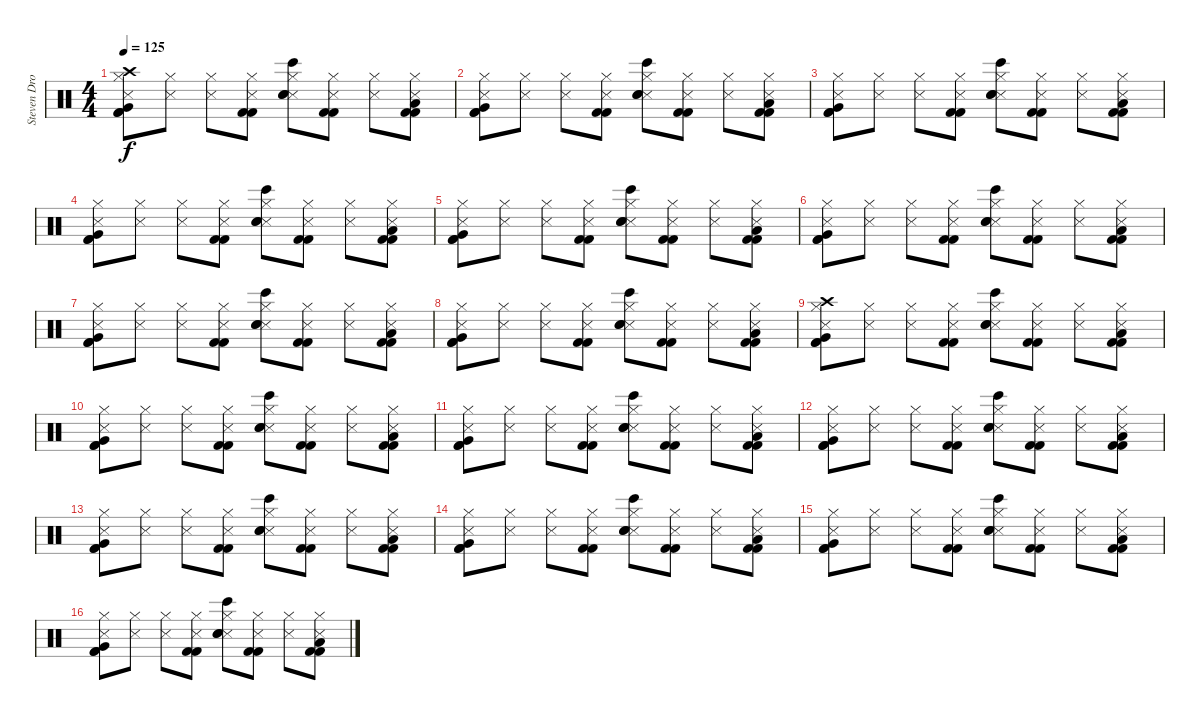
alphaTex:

\track ("Steven Drozd (Drums)" "Steven Dro") {instrument percussion}
\staff {score}
\articulation defaults
\ts (4 4)
\tempo 125
\clef neutral
\ks c
("Hi-Hat (closed)" "Metronome (hit)" "Crash high (hit)" "Kick (hit) 2" "Very Low Tom (hit)" "Kick (hit) 2").8{dy f} ("Hi-Hat (closed)" "Metronome (hit)").8 ("Hi-Hat (closed)" "Metronome (hit)").8 ("Hi-Hat (closed)" "Metronome (hit)" "Kick (hit) 2" "Kick (hit) 2").8 ("Hi-Hat (closed)" "Metronome (hit)" "Bongo High (hit)" "Snare (hit) 2" "Snare (hit) 2").8 ("Hi-Hat (closed)" "Metronome (hit)" "Kick (hit) 2" "Kick (hit) 2").8 ("Hi-Hat (closed)" "Metronome (hit)").8 ("Hi-Hat (closed)" "Metronome (hit)" "Kick (hit) 2" "Low Floor Tom (hit)" "Kick (hit) 2").8 |
("Hi-Hat (closed)" "Metronome (hit)" "Kick (hit) 2" "Very Low Tom (hit)" "Kick (hit) 2").8 ("Hi-Hat (closed)" "Metronome (hit)").8 ("Hi-Hat (closed)" "Metronome (hit)").8 ("Hi-Hat (closed)" "Metronome (hit)" "Kick (hit) 2" "Kick (hit) 2").8 ("Hi-Hat (closed)" "Metronome (hit)" "Bongo High (hit)" "Snare (hit) 2" "Snare (hit) 2").8 ("Hi-Hat (closed)" "Metronome (hit)" "Kick (hit) 2" "Kick (hit) 2").8 ("Hi-Hat (closed)" "Metronome (hit)").8 ("Hi-Hat (closed)" "Metronome (hit)" "Kick (hit) 2" "Low Floor Tom (hit)" "Kick (hit) 2").8 |
("Hi-Hat (closed)" "Metronome (hit)" "Kick (hit) 2" "Very Low Tom (hit)" "Kick (hit) 2").8 ("Hi-Hat (closed)" "Metronome (hit)").8 ("Hi-Hat (closed)" "Metronome (hit)").8 ("Hi-Hat (closed)" "Metronome (hit)" "Kick (hit) 2" "Kick (hit) 2").8 ("Hi-Hat (closed)" "Metronome (hit)" "Bongo High (hit)" "Snare (hit) 2" "Snare (hit) 2").8 ("Hi-Hat (closed)" "Metronome (hit)" "Kick (hit) 2" "Kick (hit) 2").8 ("Hi-Hat (closed)" "Metronome (hit)").8 ("Hi-Hat (closed)" "Metronome (hit)" "Kick (hit) 2" "Low Floor Tom (hit)" "Kick (hit) 2").8 |
("Hi-Hat (closed)" "Metronome (hit)" "Kick (hit) 2" "Very Low Tom (hit)" "Kick (hit) 2").8 ("Hi-Hat (closed)" "Metronome (hit)").8 ("Hi-Hat (closed)" "Metronome (hit)").8 ("Hi-Hat (closed)" "Metronome (hit)" "Kick (hit) 2" "Kick (hit) 2").8 ("Hi-Hat (closed)" "Metronome (hit)" "Bongo High (hit)" "Snare (hit) 2" "Snare (hit) 2").8 ("Hi-Hat (closed)" "Metronome (hit)" "Kick (hit) 2" "Kick (hit) 2").8 ("Hi-Hat (closed)" "Metronome (hit)").8 ("Hi-Hat (closed)" "Metronome (hit)" "Kick (hit) 2" "Low Floor Tom (hit)" "Kick (hit) 2").8 |
("Hi-Hat (closed)" "Metronome (hit)" "Kick (hit) 2" "Very Low Tom (hit)" "Kick (hit) 2").8 ("Hi-Hat (closed)" "Metronome (hit)").8 ("Hi-Hat (closed)" "Metronome (hit)").8 ("Hi-Hat (closed)" "Metronome (hit)" "Kick (hit) 2" "Kick (hit) 2").8 ("Hi-Hat (closed)" "Metronome (hit)" "Bongo High (hit)" "Snare (hit) 2" "Snare (hit) 2").8 ("Hi-Hat (closed)" "Metronome (hit)" "Kick (hit) 2" "Kick (hit) 2").8 ("Hi-Hat (closed)" "Metronome (hit)").8 ("Hi-Hat (closed)" "Metronome (hit)" "Kick (hit) 2" "Low Floor Tom (hit)" "Kick (hit) 2").8 |
("Hi-Hat (closed)" "Metronome (hit)" "Kick (hit) 2" "Very Low Tom (hit)" "Kick (hit) 2").8 ("Hi-Hat (closed)" "Metronome (hit)").8 ("Hi-Hat (closed)" "Metronome (hit)").8 ("Hi-Hat (closed)" "Metronome (hit)" "Kick (hit) 2" "Kick (hit) 2").8 ("Hi-Hat (closed)" "Metronome (hit)" "Bongo High (hit)" "Snare (hit) 2" "Snare (hit) 2").8 ("Hi-Hat (closed)" "Metronome (hit)" "Kick (hit) 2" "Kick (hit) 2").8 ("Hi-Hat (closed)" "Metronome (hit)").8 ("Hi-Hat (closed)" "Metronome (hit)" "Kick (hit) 2" "Low Floor Tom (hit)" "Kick (hit) 2").8 |
("Hi-Hat (closed)" "Metronome (hit)" "Kick (hit) 2" "Very Low Tom (hit)" "Kick (hit) 2").8 ("Hi-Hat (closed)" "Metronome (hit)").8 ("Hi-Hat (closed)" "Metronome (hit)").8 ("Hi-Hat (closed)" "Metronome (hit)" "Kick (hit) 2" "Kick (hit) 2").8 ("Hi-Hat (closed)" "Metronome (hit)" "Bongo High (hit)" "Snare (hit) 2" "Snare (hit) 2").8 ("Hi-Hat (closed)" "Metronome (hit)" "Kick (hit) 2" "Kick (hit) 2").8 ("Hi-Hat (closed)" "Metronome (hit)").8 ("Hi-Hat (closed)" "Metronome (hit)" "Kick (hit) 2" "Low Floor Tom (hit)" "Kick (hit) 2").8 |
("Hi-Hat (closed)" "Metronome (hit)" "Kick (hit) 2" "Very Low Tom (hit)" "Kick (hit) 2").8 ("Hi-Hat (closed)" "Metronome (hit)").8 ("Hi-Hat (closed)" "Metronome (hit)").8 ("Hi-Hat (closed)" "Metronome (hit)" "Kick (hit) 2" "Kick (hit) 2").8 ("Hi-Hat (closed)" "Metronome (hit)" "Bongo High (hit)" "Snare (hit) 2" "Snare (hit) 2").8 ("Hi-Hat (closed)" "Metronome (hit)" "Kick (hit) 2" "Kick (hit) 2").8 ("Hi-Hat (closed)" "Metronome (hit)").8 ("Hi-Hat (closed)" "Metronome (hit)" "Kick (hit) 2" "Low Floor Tom (hit)" "Kick (hit) 2").8 |
("Hi-Hat (closed)" "Metronome (hit)" "Crash high (hit)" "Kick (hit) 2" "Very Low Tom (hit)" "Kick (hit) 2").8 ("Hi-Hat (closed)" "Metronome (hit)").8 ("Hi-Hat (closed)" "Metronome (hit)").8 ("Hi-Hat (closed)" "Metronome (hit)" "Kick (hit) 2" "Kick (hit) 2").8 ("Hi-Hat (closed)" "Metronome (hit)" "Bongo High (hit)" "Snare (hit) 2" "Snare (hit) 2").8 ("Hi-Hat (closed)" "Metronome (hit)" "Kick (hit) 2" "Kick (hit) 2").8 ("Hi-Hat (closed)" "Metronome (hit)").8 ("Hi-Hat (closed)" "Metronome (hit)" "Kick (hit) 2" "Low Floor Tom (hit)" "Kick (hit) 2").8 |
("Hi-Hat (closed)" "Metronome (hit)" "Kick (hit) 2" "Very Low Tom (hit)" "Kick (hit) 2").8 ("Hi-Hat (closed)" "Metronome (hit)").8 ("Hi-Hat (closed)" "Metronome (hit)").8 ("Hi-Hat (closed)" "Metronome (hit)" "Kick (hit) 2" "Kick (hit) 2").8 ("Hi-Hat (closed)" "Metronome (hit)" "Bongo High (hit)" "Snare (hit) 2" "Snare (hit) 2").8 ("Hi-Hat (closed)" "Metronome (hit)" "Kick (hit) 2" "Kick (hit) 2").8 ("Hi-Hat (closed)" "Metronome (hit)").8 ("Hi-Hat (closed)" "Metronome (hit)" "Kick (hit) 2" "Low Floor Tom (hit)" "Kick (hit) 2").8 |
("Hi-Hat (closed)" "Metronome (hit)" "Kick (hit) 2" "Very Low Tom (hit)" "Kick (hit) 2").8 ("Hi-Hat (closed)" "Metronome (hit)").8 ("Hi-Hat (closed)" "Metronome (hit)").8 ("Hi-Hat (closed)" "Metronome (hit)" "Kick (hit) 2" "Kick (hit) 2").8 ("Hi-Hat (closed)" "Metronome (hit)" "Bongo High (hit)" "Snare (hit) 2" "Snare (hit) 2").8 ("Hi-Hat (closed)" "Metronome (hit)" "Kick (hit) 2" "Kick (hit) 2").8 ("Hi-Hat (closed)" "Metronome (hit)").8 ("Hi-Hat (closed)" "Metronome (hit)" "Kick (hit) 2" "Low Floor Tom (hit)" "Kick (hit) 2").8 |
("Hi-Hat (closed)" "Metronome (hit)" "Kick (hit) 2" "Very Low Tom (hit)" "Kick (hit) 2").8 ("Hi-Hat (closed)" "Metronome (hit)").8 ("Hi-Hat (closed)" "Metronome (hit)").8 ("Hi-Hat (closed)" "Metronome (hit)" "Kick (hit) 2" "Kick (hit) 2").8 ("Hi-Hat (closed)" "Metronome (hit)" "Bongo High (hit)" "Snare (hit) 2" "Snare (hit) 2").8 ("Hi-Hat (closed)" "Metronome (hit)" "Kick (hit) 2" "Kick (hit) 2").8 ("Hi-Hat (closed)" "Metronome (hit)").8 ("Hi-Hat (closed)" "Metronome (hit)" "Kick (hit) 2" "Low Floor Tom (hit)" "Kick (hit) 2").8 |
("Hi-Hat (closed)" "Metronome (hit)" "Kick (hit) 2" "Very Low Tom (hit)" "Kick (hit) 2").8 ("Hi-Hat (closed)" "Metronome (hit)").8 ("Hi-Hat (closed)" "Metronome (hit)").8 ("Hi-Hat (closed)" "Metronome (hit)" "Kick (hit) 2" "Kick (hit) 2").8 ("Hi-Hat (closed)" "Metronome (hit)" "Bongo High (hit)" "Snare (hit) 2" "Snare (hit) 2").8 ("Hi-Hat (closed)" "Metronome (hit)" "Kick (hit) 2" "Kick (hit) 2").8 ("Hi-Hat (closed)" "Metronome (hit)").8 ("Hi-Hat (closed)" "Metronome (hit)" "Kick (hit) 2" "Low Floor Tom (hit)" "Kick (hit) 2").8 |
("Hi-Hat (closed)" "Metronome (hit)" "Kick (hit) 2" "Very Low Tom (hit)" "Kick (hit) 2").8 ("Hi-Hat (closed)" "Metronome (hit)").8 ("Hi-Hat (closed)" "Metronome (hit)").8 ("Hi-Hat (closed)" "Metronome (hit)" "Kick (hit) 2" "Kick (hit) 2").8 ("Hi-Hat (closed)" "Metronome (hit)" "Bongo High (hit)" "Snare (hit) 2" "Snare (hit) 2").8 ("Hi-Hat (closed)" "Metronome (hit)" "Kick (hit) 2" "Kick (hit) 2").8 ("Hi-Hat (closed)" "Metronome (hit)").8 ("Hi-Hat (closed)" "Metronome (hit)" "Kick (hit) 2" "Low Floor Tom (hit)" "Kick (hit) 2").8 |
("Hi-Hat (closed)" "Metronome (hit)" "Kick (hit) 2" "Very Low Tom (hit)" "Kick (hit) 2").8 ("Hi-Hat (closed)" "Metronome (hit)").8 ("Hi-Hat (closed)" "Metronome (hit)").8 ("Hi-Hat (closed)" "Metronome (hit)" "Kick (hit) 2" "Kick (hit) 2").8 ("Hi-Hat (closed)" "Metronome (hit)" "Bongo High (hit)" "Snare (hit) 2" "Snare (hit) 2").8 ("Hi-Hat (closed)" "Metronome (hit)" "Kick (hit) 2" "Kick (hit) 2").8 ("Hi-Hat (closed)" "Metronome (hit)").8 ("Hi-Hat (closed)" "Metronome (hit)" "Kick (hit) 2" "Low Floor Tom (hit)" "Kick (hit) 2").8 |
("Hi-Hat (closed)" "Metronome (hit)" "Kick (hit) 2" "Very Low Tom (hit)" "Kick (hit) 2").8 ("Hi-Hat (closed)" "Metronome (hit)").8 ("Hi-Hat (closed)" "Metronome (hit)").8 ("Hi-Hat (closed)" "Metronome (hit)" "Kick (hit) 2" "Kick (hit) 2").8 ("Hi-Hat (closed)" "Metronome (hit)" "Bongo High (hit)" "Snare (hit) 2" "Snare (hit) 2").8 ("Hi-Hat (closed)" "Metronome (hit)" "Kick (hit) 2" "Kick (hit) 2").8 ("Hi-Hat (closed)" "Metronome (hit)").8 ("Hi-Hat (closed)" "Metronome (hit)" "Kick (hit) 2" "Low Floor Tom (hit)" "Kick (hit) 2").8
